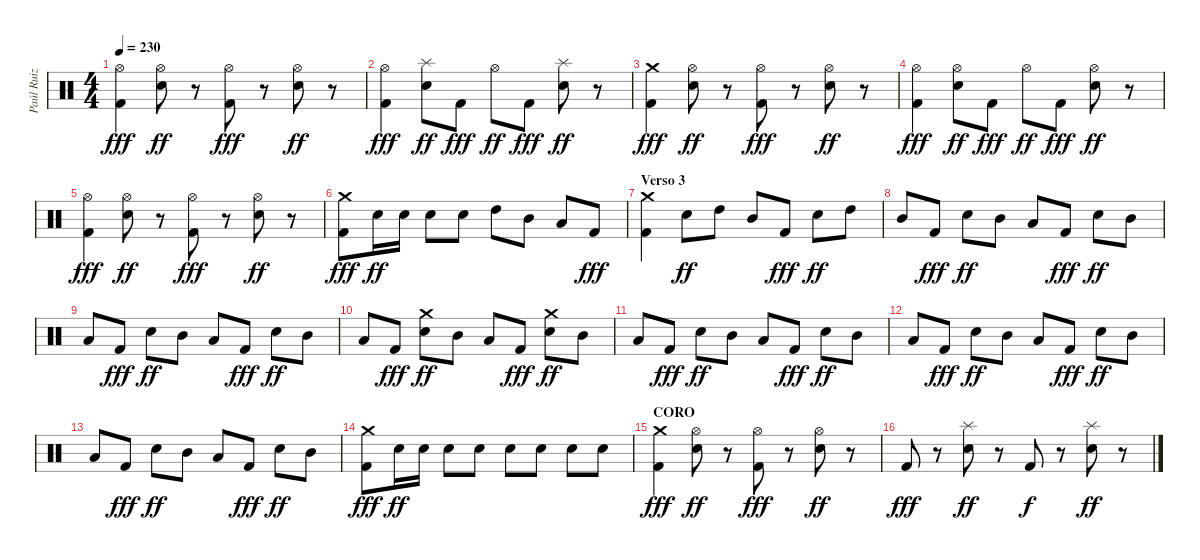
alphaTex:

\track ("Paúl Ruiz" "Paúl Ruiz") {instrument percussion}
\staff {score}
\articulation defaults
\ts (4 4)
\tempo 230
\clef neutral
\ks c
("Hi-Hat (open)" "Kick (hit) 2").4{dy fff} ("Hi-Hat (open)" "Snare (hit) 2").8{dy ff} r.8 ("Hi-Hat (open)" "Kick (hit) 2").8{dy fff} r.8 ("Hi-Hat (open)" "Snare (hit) 2").8{dy ff} r.8 |
("Hi-Hat (open)" "Kick (hit) 2").4{dy fff} ("Splash (hit)" "Snare (hit) 2").8{dy ff} "Kick (hit) 2".8{dy fff} "Hi-Hat (open)".8{dy ff} "Kick (hit) 2".8{dy fff} ("Splash (hit)" "Snare (hit) 2").8{dy ff} r.8 |
("Crash medium (hit)" "Kick (hit) 2").4{dy fff} ("Hi-Hat (open)" "Snare (hit) 2").8{dy ff} r.8 ("Hi-Hat (open)" "Kick (hit) 2").8{dy fff} r.8 ("Hi-Hat (open)" "Snare (hit) 2").8{dy ff} r.8 |
("Hi-Hat (open)" "Kick (hit) 2").4{dy fff} ("Hi-Hat (open)" "Snare (hit) 2").8{dy ff} "Kick (hit) 2".8{dy fff} "Hi-Hat (open)".8{dy ff} "Kick (hit) 2".8{dy fff} ("Hi-Hat (open)" "Snare (hit) 2").8{dy ff} r.8 |
("Hi-Hat (open)" "Kick (hit) 2").4{dy fff} ("Hi-Hat (open)" "Snare (hit) 2").8{dy ff} r.8 ("Hi-Hat (open)" "Kick (hit) 2").8{dy fff} r.8 ("Hi-Hat (open)" "Snare (hit) 2").8{dy ff} r.8 |
("Crash medium (hit)" "Kick (hit) 2").8{dy fff} "Snare (hit) 2".16{dy ff} "Snare (hit) 2".16 "Snare (hit) 2".8 "Snare (hit) 2".8 "High Tom (hit)".8 "Mid Tom (hit)".8 "Low Tom (hit)".8 "Kick (hit) 2".8{dy fff} |
\section ("" "Verso 3")
("Crash medium (hit)" "Kick (hit) 2").4 "Snare (hit) 2".8{dy ff} "High Tom (hit)".8 "Mid Tom (hit)".8 "Kick (hit) 2".8{dy fff} "Snare (hit) 2".8{dy ff} "High Tom (hit)".8 |
"Mid Tom (hit)".8 "Kick (hit) 2".8{dy fff} "Snare (hit) 2".8{dy ff} "Mid Tom (hit)".8 "Low Tom (hit)".8 "Kick (hit) 2".8{dy fff} "Snare (hit) 2".8{dy ff} "Mid Tom (hit)".8 |
"Low Tom (hit)".8 "Kick (hit) 2".8{dy fff} "Snare (hit) 2".8{dy ff} "Mid Tom (hit)".8 "Low Tom (hit)".8 "Kick (hit) 2".8{dy fff} "Snare (hit) 2".8{dy ff} "Mid Tom (hit)".8 |
"Low Tom (hit)".8 "Kick (hit) 2".8{dy fff} ("Crash medium (hit)" "Snare (hit) 2").8{dy ff} "Mid Tom (hit)".8 "Low Tom (hit)".8 "Kick (hit) 2".8{dy fff} ("Crash medium (hit)" "Snare (hit) 2").8{dy ff} "Mid Tom (hit)".8 |
"Low Tom (hit)".8 "Kick (hit) 2".8{dy fff} "Snare (hit) 2".8{dy ff} "Mid Tom (hit)".8 "Low Tom (hit)".8 "Kick (hit) 2".8{dy fff} "Snare (hit) 2".8{dy ff} "Mid Tom (hit)".8 |
"Low Tom (hit)".8 "Kick (hit) 2".8{dy fff} "Snare (hit) 2".8{dy ff} "Mid Tom (hit)".8 "Low Tom (hit)".8 "Kick (hit) 2".8{dy fff} "Snare (hit) 2".8{dy ff} "Mid Tom (hit)".8 |
"Low Tom (hit)".8 "Kick (hit) 2".8{dy fff} "Snare (hit) 2".8{dy ff} "Mid Tom (hit)".8 "Low Tom (hit)".8 "Kick (hit) 2".8{dy fff} "Snare (hit) 2".8{dy ff} "Mid Tom (hit)".8 |
("Crash medium (hit)" "Kick (hit) 2").8{dy fff} "Snare (hit) 2".16{dy ff} "Snare (hit) 2".16 "Snare (hit) 2".8 "Snare (hit) 2".8 "Snare (hit) 2".8 "Snare (hit) 2".8 "Snare (hit) 2".8 "Snare (hit) 2".8 |
\section ("" "CORO")
("Crash medium (hit)" "Kick (hit) 2").4{dy fff} ("Hi-Hat (open)" "Snare (hit) 2").8{dy ff} r.8 ("Hi-Hat (open)" "Kick (hit) 2").8{dy fff} r.8 ("Hi-Hat (open)" "Snare (hit) 2").8{dy ff} r.8 |
"Kick (hit) 2".8{dy fff} r.8 ("Splash (hit)" "Snare (hit) 2").8{dy ff} r.8 "Kick (hit) 2".8{dy f} r.8 ("Splash (hit)" "Snare (hit) 2").8{dy ff} r.8
